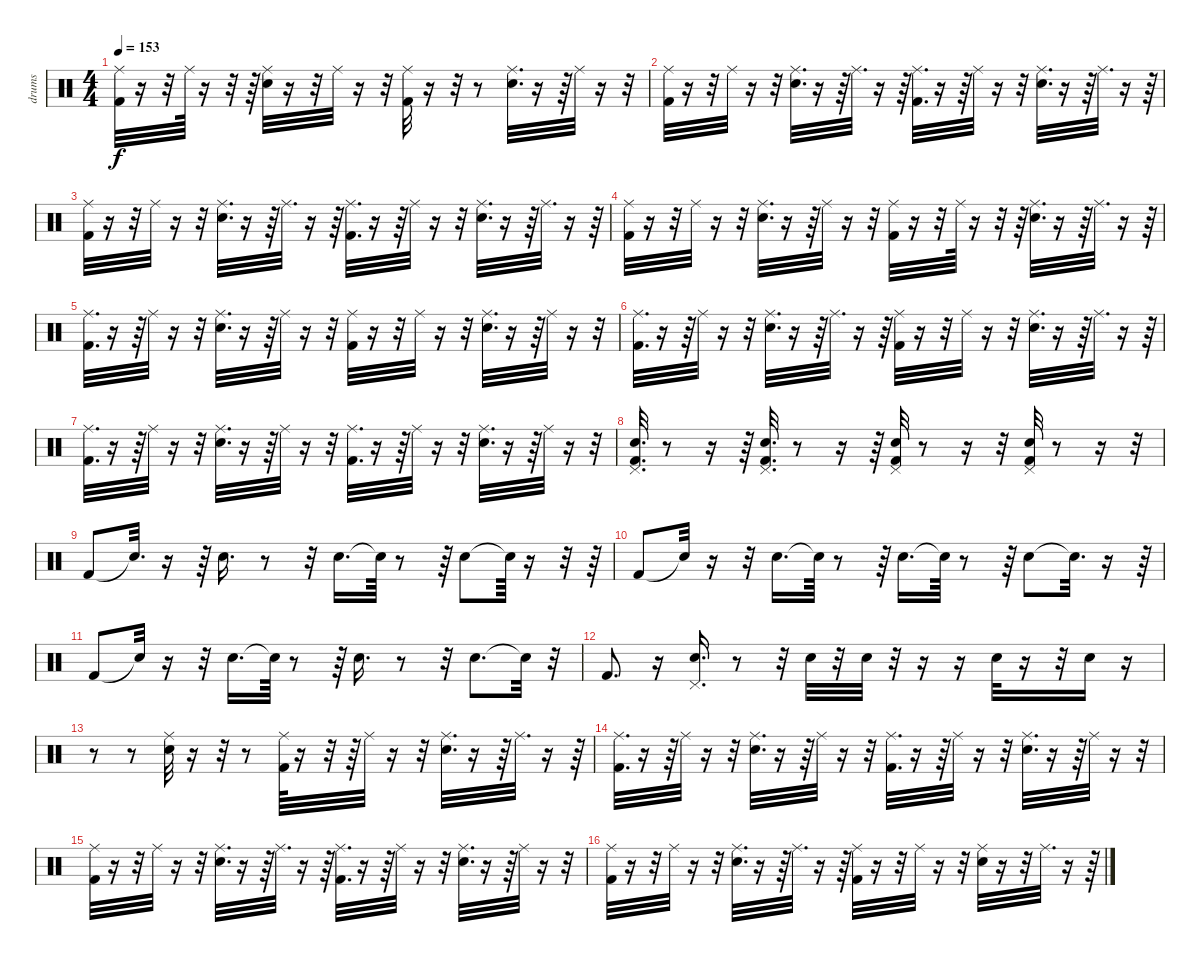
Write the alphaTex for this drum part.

\track ("drums" "drums") {instrument percussion}
\staff {score}
\articulation defaults
\ts (4 4)
\tempo 153
\clef neutral
\ks c
("Ride (middle)" "Kick (hit) 2").32{dy f} r.16 r.32 "Ride (middle)".64 r.16 r.32 r.64 ("Ride (middle)" "Snare (hit) 2").32 r.16 r.32 "Ride (middle)".32 r.16 r.32 ("Ride (middle)" "Kick (hit) 2").32 r.16 r.32 r.8 ("Ride (middle)" "Snare (hit) 2").32{d} r.16 r.64 "Ride (middle)".32 r.16 r.32 |
("Ride (middle)" "Kick (hit) 2").32 r.16 r.32 "Ride (middle)".32 r.16 r.32 ("Ride (middle)" "Snare (hit) 2").32{d} r.16 r.64 "Ride (middle)".32{d} r.16 r.64 ("Ride (middle)" "Kick (hit) 2").32{d} r.16 r.64 "Ride (middle)".32 r.16 r.32 ("Ride (middle)" "Snare (hit) 2").32{d} r.16 r.64 "Ride (middle)".32{d} r.16 r.64 |
("Ride (middle)" "Kick (hit) 2").32 r.16 r.32 "Ride (middle)".32 r.16 r.32 ("Ride (middle)" "Snare (hit) 2").32{d} r.16 r.64 "Ride (middle)".32{d} r.16 r.64 ("Ride (middle)" "Kick (hit) 2").32{d} r.16 r.64 "Ride (middle)".32 r.16 r.32 ("Ride (middle)" "Snare (hit) 2").32{d} r.16 r.64 "Ride (middle)".32{d} r.16 r.64 |
("Ride (middle)" "Kick (hit) 2").32 r.16 r.32 "Ride (middle)".32 r.16 r.32 ("Ride (middle)" "Snare (hit) 2").32{d} r.16 r.64 "Ride (middle)".32 r.16 r.32 ("Ride (middle)" "Kick (hit) 2").32 r.16 r.32 "Ride (middle)".64 r.16 r.32 r.64 ("Ride (middle)" "Snare (hit) 2").32{d} r.16 r.64 "Ride (middle)".32{d} r.16 r.64 |
("Ride (middle)" "Kick (hit) 2").32{d} r.16 r.64 "Ride (middle)".32 r.16 r.32 ("Ride (middle)" "Snare (hit) 2").32{d} r.16 r.64 "Ride (middle)".32 r.16 r.32 ("Ride (middle)" "Kick (hit) 2").32 r.16 r.32 "Ride (middle)".32 r.16 r.32 ("Ride (middle)" "Snare (hit) 2").32{d} r.16 r.64 "Ride (middle)".32 r.16 r.32 |
("Ride (middle)" "Kick (hit) 2").32{d} r.16 r.64 "Ride (middle)".32 r.16 r.32 ("Ride (middle)" "Snare (hit) 2").32{d} r.16 r.64 "Ride (middle)".32{d} r.16 r.64 ("Ride (middle)" "Kick (hit) 2").32 r.16 r.32 "Ride (middle)".32 r.16 r.32 ("Ride (middle)" "Snare (hit) 2").32{d} r.16 r.64 "Ride (middle)".32{d} r.16 r.64 |
("Ride (middle)" "Kick (hit) 2").32{d} r.16 r.64 "Ride (middle)".32 r.16 r.32 ("Ride (middle)" "Snare (hit) 2").32{d} r.16 r.64 "Ride (middle)".32 r.16 r.32 ("Ride (middle)" "Kick (hit) 2").32{d} r.16 r.64 "Ride (middle)".32 r.16 r.32 ("Ride (middle)" "Snare (hit) 2").32{d} r.16 r.64 "Ride (middle)".32 r.16 r.32 |
("Pedal Hi-Hat (hit)" "Snare (hit) 2" "Kick (hit) 2").32{d} r.8 r.16 r.64 ("Pedal Hi-Hat (hit)" "Snare (hit) 2" "Kick (hit) 2").32{d} r.8 r.16 r.64 ("Pedal Hi-Hat (hit)" "Snare (hit) 2" "Kick (hit) 2").32 r.8 r.16 r.32 ("Pedal Hi-Hat (hit)" "Snare (hit) 2" "Kick (hit) 2").32 r.8 r.16 r.32 |
"Kick (hit) 2".8 "Snare (hit)"{t}.32{d} r.16 r.64 "Snare (hit) 2".16{d} r.8 r.32 "Snare (hit) 2".16{d} "Snare (hit)"{t}.64 r.8 r.64 "Snare (hit) 2".8 "Snare (hit)"{t}.64 r.16 r.32 r.64 |
"Kick (hit) 2".8 "Snare (hit)"{t}.32 r.16 r.32 "Snare (hit) 2".16{d} "Snare (hit)"{t}.64 r.8 r.64 "Snare (hit) 2".16{d} "Snare (hit)"{t}.64 r.8 r.64 "Snare (hit) 2".8 "Snare (hit)"{t}.32{d} r.16 r.64 |
"Kick (hit) 2".8 "Snare (hit)"{t}.32 r.16 r.32 "Snare (hit) 2".16{d} "Snare (hit)"{t}.64 r.8 r.64 "Snare (hit) 2".16{d} r.8 r.32 "Snare (hit) 2".8{d} "Snare (hit)"{t}.32 r.32 |
"Kick (hit) 2".8{d} r.16 ("Pedal Hi-Hat (hit)" "Snare (hit) 2").16{d} r.8 r.32 "Snare (hit) 2".32 r.32 "Snare (hit) 2".32 r.32 r.16 r.16 "Snare (hit) 2".32 r.16 r.32 "Snare (hit) 2".16 r.16 |
r.8 r.8 ("Ride (middle)" "Snare (hit) 2").32 r.16 r.32 r.8 ("Ride (middle)" "Kick (hit) 2").64 r.16 r.32 r.64 "Ride (middle)".32 r.16 r.32 ("Ride (middle)" "Snare (hit) 2").32{d} r.16 r.64 "Ride (middle)".32{d} r.16 r.64 |
("Ride (middle)" "Kick (hit) 2").32{d} r.16 r.64 "Ride (middle)".32 r.16 r.32 ("Ride (middle)" "Snare (hit) 2").32{d} r.16 r.64 "Ride (middle)".32 r.16 r.32 ("Ride (middle)" "Kick (hit) 2").32{d} r.16 r.64 "Ride (middle)".32 r.16 r.32 ("Ride (middle)" "Snare (hit) 2").32{d} r.16 r.64 "Ride (middle)".32 r.16 r.32 |
("Ride (middle)" "Kick (hit) 2").32 r.16 r.32 "Ride (middle)".32 r.16 r.32 ("Ride (middle)" "Snare (hit) 2").32{d} r.16 r.64 "Ride (middle)".32{d} r.16 r.64 ("Ride (middle)" "Kick (hit) 2").32{d} r.16 r.64 "Ride (middle)".32 r.16 r.32 ("Ride (middle)" "Snare (hit) 2").32{d} r.16 r.64 "Ride (middle)".32 r.16 r.32 |
("Ride (middle)" "Kick (hit) 2").32 r.16 r.32 "Ride (middle)".32 r.16 r.32 ("Ride (middle)" "Snare (hit) 2").32{d} r.16 r.64 "Ride (middle)".32{d} r.16 r.64 ("Ride (middle)" "Kick (hit) 2").32 r.16 r.32 "Ride (middle)".32 r.16 r.32 ("Ride (middle)" "Snare (hit) 2").32 r.16 r.32 "Ride (middle)".32{d} r.16 r.64
